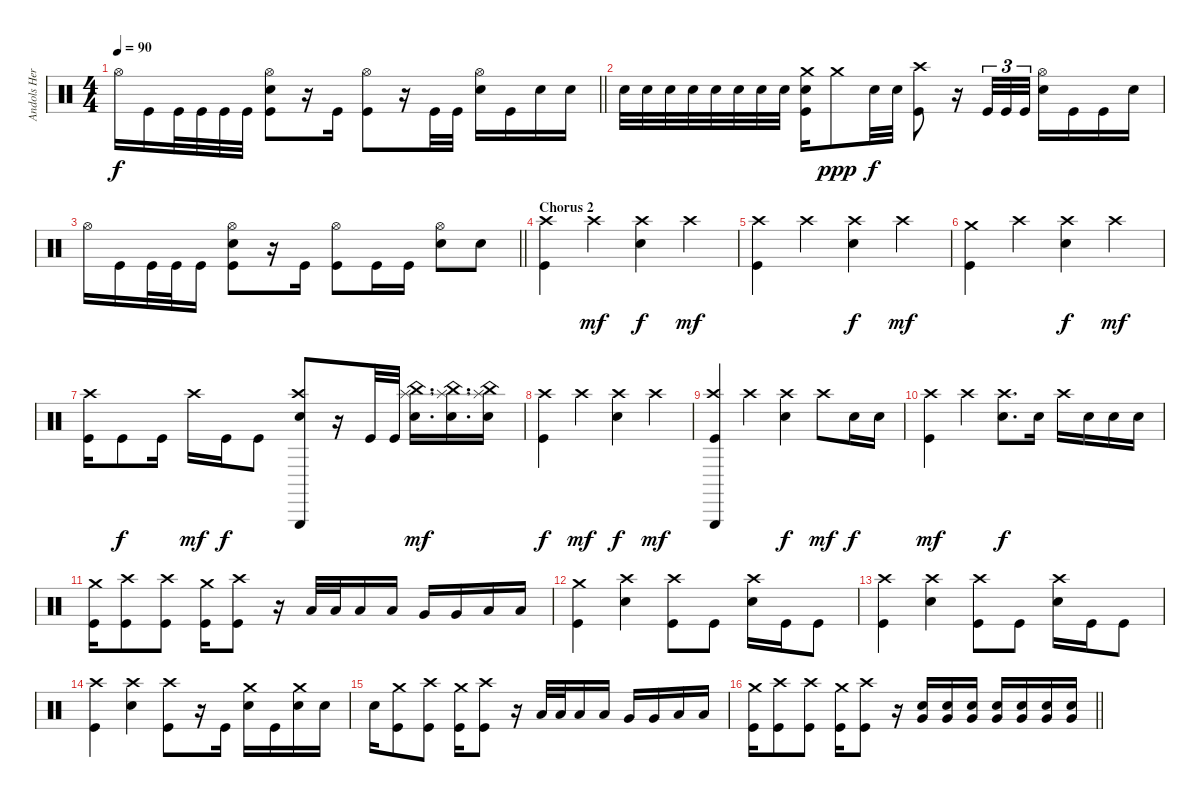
\track ("Andols Herrick" "Andols Her") {instrument percussion}
\staff
\articulation defaults
\ts (4 4)
\tempo 90
\clef neutral
\barLineRight lightlight
\ks c "Hi-Hat (open)".16{dy f} "Kick (hit)".16 "Kick (hit)".32 "Kick (hit)".32 "Kick (hit)".32 "Kick (hit)".32
("Hi-Hat (open)" "Electric Snare (hit)" "Kick (hit)").8 r.16 "Kick (hit)".16 ("Hi-Hat (open)" "Kick (hit)").8 r.16 "Kick (hit)".32 "Kick (hit)".32 ("Hi-Hat (open)" "Electric Snare (hit)").16 "Kick (hit)".16 "Electric Snare (hit)".16 "Electric Snare (hit)".16 |
"Electric Snare (hit)".32 "Electric Snare (hit)".32 "Electric Snare (hit)".32 "Electric Snare (hit)".32 "Electric Snare (hit)".32 "Electric Snare (hit)".32 "Electric Snare (hit)".32 "Electric Snare (hit)".32 ("Crash medium (hit)" "Electric Snare (hit)" "Kick (hit)").16 "Crash medium (hit)".8{dy ppp} "Electric Snare (hit)".32{dy f} "Electric Snare (hit)".32 ("Crash high (hit)" "Kick (hit)").8 r.16 "Kick (hit)".32{tu (3 2)} "Kick (hit)".32{tu (3 2)} "Kick (hit)".32{tu (3 2)} ("Hi-Hat (open)" "Electric Snare (hit)").16 "Kick (hit)".16 "Kick (hit)".16 "Electric Snare (hit)".16 |
\barLineRight lightlight "Hi-Hat (open)".16 "Kick (hit)".16 "Kick (hit)".32 "Kick (hit)".32 "Kick (hit)".16
("Hi-Hat (open)" "Electric Snare (hit)" "Kick (hit)").8 r.16 "Kick (hit)".16 ("Hi-Hat (open)" "Kick (hit)").8 "Kick (hit)".16 "Kick (hit)".16 ("Hi-Hat (open)" "Electric Snare (hit)").8 "Electric Snare (hit)".8 |
\section ("" "Chorus 2")
("Crash high (hit)" "Kick (hit)").4 "Crash high (hit)".4{dy mf} ("Crash high (hit)" "Electric Snare (hit)").4{dy f} "Crash high (hit)".4{dy mf} |
("Crash high (hit)" "Kick (hit)").4 "Crash high (hit)".4 ("Crash high (hit)" "Electric Snare (hit)").4{dy f} "Crash high (hit)".4{dy mf} |
("Crash medium (hit)" "Kick (hit)").4 "Crash high (hit)".4 ("Crash high (hit)" "Electric Snare (hit)").4{dy f} "Crash high (hit)".4{dy mf} |
("Crash high (hit)" "Kick (hit)").16 "Kick (hit)".8{dy f} "Kick (hit)".16 "Crash high (hit)".16{dy mf} "Kick (hit)".16{dy f} "Kick (hit)".8 ("Triangle (hit)" "Crash high (hit)" "Electric Snare (hit)").8 r.16 "Kick (hit)".32 "Kick (hit)".32 ("China (hit)" "Splash (hit)" "Electric Snare (hit)").16{d dy mf} ("China (hit)" "Splash (hit)" "Electric Snare (hit)").16{d} ("China (hit)" "Splash (hit)" "Electric Snare (hit)").16 |
("Crash high (hit)" "Kick (hit)").4{dy f} "Crash high (hit)".4{dy mf} ("Crash high (hit)" "Electric Snare (hit)").4{dy f} "Crash high (hit)".4{dy mf} |
("Triangle (hit)" "Crash high (hit)" "Kick (hit)").4 "Crash high (hit)".4 ("Crash high (hit)" "Electric Snare (hit)").4{dy f} "Crash high (hit)".8{dy mf} "Electric Snare (hit)".16{dy f} "Electric Snare (hit)".16 |
("Crash high (hit)" "Kick (hit)").4{dy mf} "Crash high (hit)".4 ("Crash high (hit)" "Electric Snare (hit)").8{d dy f} "Electric Snare (hit)".16 "Crash high (hit)".16 "Electric Snare (hit)".16 "Electric Snare (hit)".16 "Electric Snare (hit)".16 |
("Crash medium (hit)" "Kick (hit)").16 ("Crash high (hit)" "Kick (hit)").8 ("Crash high (hit)" "Kick (hit)").8 ("Crash medium (hit)" "Kick (hit)").16 ("Crash high (hit)" "Kick (hit)").8 r.16 "Low Tom (hit)".32 "Low Tom (hit)".32 "Low Tom (hit)".16 "Low Tom (hit)".16 "Very Low Tom (hit)".16 "Very Low Tom (hit)".16 "Low Floor Tom (hit)".16 "Low Floor Tom (hit)".16 |
("Crash medium (hit)" "Kick (hit)").4 ("Crash high (hit)" "Electric Snare (hit)").4 ("Crash high (hit)" "Kick (hit)").8 "Kick (hit)".8 ("Crash high (hit)" "Electric Snare (hit)").16 "Kick (hit)".16 "Kick (hit)".8 |
("Crash high (hit)" "Kick (hit)").4 ("Crash high (hit)" "Electric Snare (hit)").4 ("Crash high (hit)" "Kick (hit)").8 "Kick (hit)".8 ("Crash high (hit)" "Electric Snare (hit)").16 "Kick (hit)".16 "Kick (hit)".8 |
("Crash high (hit)" "Kick (hit)").4 ("Crash high (hit)" "Electric Snare (hit)").4 ("Crash high (hit)" "Kick (hit)").8 r.16 "Kick (hit)".16 ("Crash medium (hit)" "Electric Snare (hit)").16 "Kick (hit)".16 ("Crash medium (hit)" "Electric Snare (hit)").16 "Electric Snare (hit)".16 |
"Electric Snare (hit)".16 ("Crash medium (hit)" "Kick (hit)").8 ("Crash high (hit)" "Kick (hit)").8 ("Crash medium (hit)" "Kick (hit)").16 ("Crash high (hit)" "Kick (hit)").8 r.16 "Low Tom (hit)".32 "Low Tom (hit)".32 "Low Tom (hit)".16 "Low Tom (hit)".16 "Very Low Tom (hit)".16 "Very Low Tom (hit)".16 "Low Floor Tom (hit)".16 "Low Floor Tom (hit)".16 |
\barLineRight lightlight
("Crash medium (hit)" "Kick (hit)").16 ("Crash high (hit)" "Kick (hit)").8 ("Crash high (hit)" "Kick (hit)").8 ("Crash medium (hit)" "Kick (hit)").16 ("Crash high (hit)" "Kick (hit)").8 r.16 ("Electric Snare (hit)" "Very Low Tom (hit)").16 ("Electric Snare (hit)" "Very Low Tom (hit)").16 ("Electric Snare (hit)" "Very Low Tom (hit)").16 ("Electric Snare (hit)" "Very Low Tom (hit)").16 ("Electric Snare (hit)" "Very Low Tom (hit)").16 ("Electric Snare (hit)" "Very Low Tom (hit)").16 ("Electric Snare (hit)" "Very Low Tom (hit)").16
